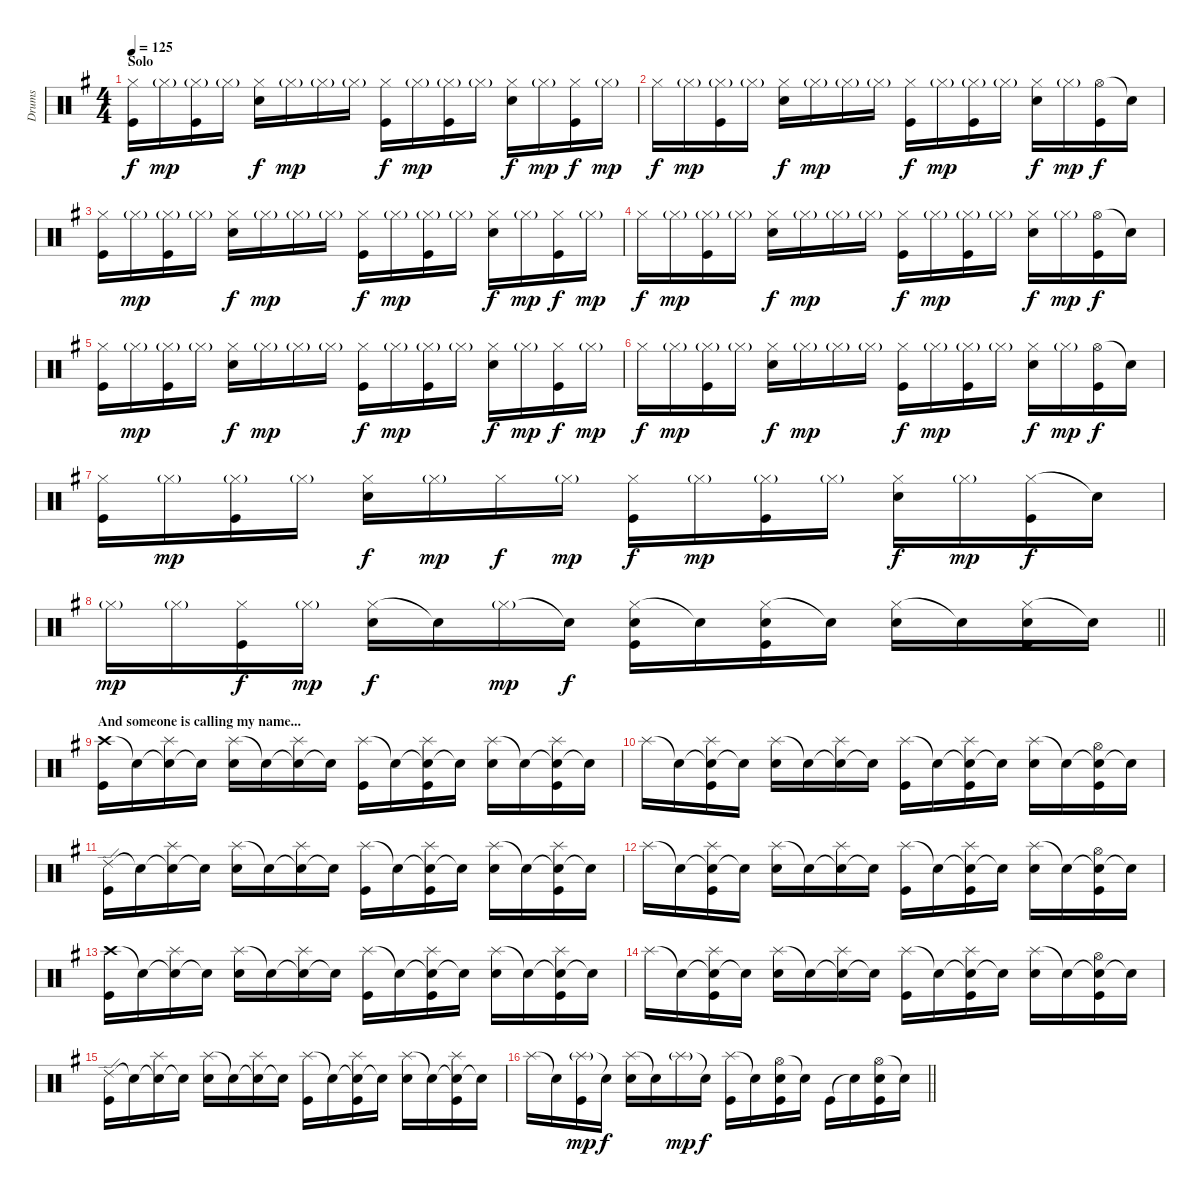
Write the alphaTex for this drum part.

\track ("Drums" "Drums") {instrument percussion}
\staff {score}
\articulation defaults
\ts (4 4)
\section ("" "Solo")
\tempo 125
\clef neutral
\ks g
("Hi-Hat (closed)" "Kick (hit)").16{dy f} "Hi-Hat (closed)"{g}.16{dy mp} ("Hi-Hat (closed)"{g} "Kick (hit)").16 "Hi-Hat (closed)"{g}.16 ("Hi-Hat (closed)" "Electric Snare (hit)").16{dy f} "Hi-Hat (closed)"{g}.16{dy mp} "Hi-Hat (closed)"{g}.16 "Hi-Hat (closed)"{g}.16 ("Hi-Hat (closed)" "Kick (hit)").16{dy f} "Hi-Hat (closed)"{g}.16{dy mp} ("Hi-Hat (closed)"{g} "Kick (hit)").16 "Hi-Hat (closed)"{g}.16 ("Hi-Hat (closed)" "Electric Snare (hit)").16{dy f} "Hi-Hat (closed)"{g}.16{dy mp} ("Hi-Hat (closed)" "Kick (hit)").16{dy f} "Hi-Hat (closed)"{g}.16{dy mp} |
"Hi-Hat (closed)".16{dy f} "Hi-Hat (closed)"{g}.16{dy mp} ("Hi-Hat (closed)"{g} "Kick (hit)").16 "Hi-Hat (closed)"{g}.16 ("Hi-Hat (closed)" "Electric Snare (hit)").16{dy f} "Hi-Hat (closed)"{g}.16{dy mp} "Hi-Hat (closed)"{g}.16 "Hi-Hat (closed)"{g}.16 ("Hi-Hat (closed)" "Kick (hit)").16{dy f} "Hi-Hat (closed)"{g}.16{dy mp} ("Hi-Hat (closed)"{g} "Kick (hit)").16 "Hi-Hat (closed)"{g}.16 ("Hi-Hat (closed)" "Electric Snare (hit)").16{dy f} "Hi-Hat (closed)"{g}.16{dy mp} ("Hi-Hat (open)" "Kick (hit)").16{dy f} "Snare (hit)"{t}.16 |
("Hi-Hat (closed)" "Kick (hit)").16 "Hi-Hat (closed)"{g}.16{dy mp} ("Hi-Hat (closed)"{g} "Kick (hit)").16 "Hi-Hat (closed)"{g}.16 ("Hi-Hat (closed)" "Electric Snare (hit)").16{dy f} "Hi-Hat (closed)"{g}.16{dy mp} "Hi-Hat (closed)"{g}.16 "Hi-Hat (closed)"{g}.16 ("Hi-Hat (closed)" "Kick (hit)").16{dy f} "Hi-Hat (closed)"{g}.16{dy mp} ("Hi-Hat (closed)"{g} "Kick (hit)").16 "Hi-Hat (closed)"{g}.16 ("Hi-Hat (closed)" "Electric Snare (hit)").16{dy f} "Hi-Hat (closed)"{g}.16{dy mp} ("Hi-Hat (closed)" "Kick (hit)").16{dy f} "Hi-Hat (closed)"{g}.16{dy mp} |
"Hi-Hat (closed)".16{dy f} "Hi-Hat (closed)"{g}.16{dy mp} ("Hi-Hat (closed)"{g} "Kick (hit)").16 "Hi-Hat (closed)"{g}.16 ("Hi-Hat (closed)" "Electric Snare (hit)").16{dy f} "Hi-Hat (closed)"{g}.16{dy mp} "Hi-Hat (closed)"{g}.16 "Hi-Hat (closed)"{g}.16 ("Hi-Hat (closed)" "Kick (hit)").16{dy f} "Hi-Hat (closed)"{g}.16{dy mp} ("Hi-Hat (closed)"{g} "Kick (hit)").16 "Hi-Hat (closed)"{g}.16 ("Hi-Hat (closed)" "Electric Snare (hit)").16{dy f} "Hi-Hat (closed)"{g}.16{dy mp} ("Hi-Hat (open)" "Kick (hit)").16{dy f} "Snare (hit)"{t}.16 |
("Hi-Hat (closed)" "Kick (hit)").16 "Hi-Hat (closed)"{g}.16{dy mp} ("Hi-Hat (closed)"{g} "Kick (hit)").16 "Hi-Hat (closed)"{g}.16 ("Hi-Hat (closed)" "Electric Snare (hit)").16{dy f} "Hi-Hat (closed)"{g}.16{dy mp} "Hi-Hat (closed)"{g}.16 "Hi-Hat (closed)"{g}.16 ("Hi-Hat (closed)" "Kick (hit)").16{dy f} "Hi-Hat (closed)"{g}.16{dy mp} ("Hi-Hat (closed)"{g} "Kick (hit)").16 "Hi-Hat (closed)"{g}.16 ("Hi-Hat (closed)" "Electric Snare (hit)").16{dy f} "Hi-Hat (closed)"{g}.16{dy mp} ("Hi-Hat (closed)" "Kick (hit)").16{dy f} "Hi-Hat (closed)"{g}.16{dy mp} |
"Hi-Hat (closed)".16{dy f} "Hi-Hat (closed)"{g}.16{dy mp} ("Hi-Hat (closed)"{g} "Kick (hit)").16 "Hi-Hat (closed)"{g}.16 ("Hi-Hat (closed)" "Electric Snare (hit)").16{dy f} "Hi-Hat (closed)"{g}.16{dy mp} "Hi-Hat (closed)"{g}.16 "Hi-Hat (closed)"{g}.16 ("Hi-Hat (closed)" "Kick (hit)").16{dy f} "Hi-Hat (closed)"{g}.16{dy mp} ("Hi-Hat (closed)"{g} "Kick (hit)").16 "Hi-Hat (closed)"{g}.16 ("Hi-Hat (closed)" "Electric Snare (hit)").16{dy f} "Hi-Hat (closed)"{g}.16{dy mp} ("Hi-Hat (open)" "Kick (hit)").16{dy f} "Snare (hit)"{t}.16 |
("Hi-Hat (closed)" "Kick (hit)").16 "Hi-Hat (closed)"{g}.16{dy mp} ("Hi-Hat (closed)"{g} "Kick (hit)").16 "Hi-Hat (closed)"{g}.16 ("Hi-Hat (closed)" "Electric Snare (hit)").16{dy f} "Hi-Hat (closed)"{g}.16{dy mp} "Hi-Hat (closed)".16{dy f} "Hi-Hat (closed)"{g}.16{dy mp} ("Hi-Hat (closed)" "Kick (hit)").16{dy f} "Hi-Hat (closed)"{g}.16{dy mp} ("Hi-Hat (closed)"{g} "Kick (hit)").16 "Hi-Hat (closed)"{g}.16 ("Hi-Hat (closed)" "Electric Snare (hit)").16{dy f} "Hi-Hat (closed)"{g}.16{dy mp} ("Hi-Hat (closed)" "Kick (hit)").16{dy f} "Snare (hit)"{t}.16 |
\barLineRight lightlight "Hi-Hat (closed)"{g}.16{dy mp} "Hi-Hat (closed)"{g}.16
("Hi-Hat (closed)" "Kick (hit)").16{dy f} "Hi-Hat (closed)"{g}.16{dy mp} ("Hi-Hat (closed)" "Electric Snare (hit)").16{dy f} "Snare (hit)"{t}.16 "Hi-Hat (closed)"{g}.16{dy mp} "Snare (hit)"{t}.16{dy f} ("Hi-Hat (closed)" "Electric Snare (hit)" "Kick (hit)").16 "Snare (hit)"{t}.16 ("Hi-Hat (closed)" "Electric Snare (hit)" "Kick (hit)").16 "Snare (hit)"{t}.16 ("Hi-Hat (closed)" "Electric Snare (hit)").16 "Snare (hit)"{t}.16 ("Hi-Hat (closed)" "Electric Snare (hit)" "Kick (hit)").16 "Snare (hit)"{t}.16 |
\section ("" "And someone is calling my name...")
("Crash high (hit)" "Kick (hit)").16 "Snare (hit)"{t}.16 ("Snare (hit)"{t} "Splash (hit)").16 "Snare (hit)"{t}.16 ("Splash (hit)" "Electric Snare (hit)").16 "Snare (hit)"{t}.16 ("Snare (hit)"{t} "Splash (hit)").16 "Snare (hit)"{t}.16 ("Splash (hit)" "Kick (hit)").16 "Snare (hit)"{t}.16 ("Snare (hit)"{t} "Splash (hit)" "Kick (hit)").16 "Snare (hit)"{t}.16 ("Splash (hit)" "Electric Snare (hit)").16 "Snare (hit)"{t}.16 ("Snare (hit)"{t} "Splash (hit)" "Kick (hit)").16 "Snare (hit)"{t}.16 |
"Splash (hit)".16 "Snare (hit)"{t}.16 ("Snare (hit)"{t} "Splash (hit)" "Kick (hit)").16 "Snare (hit)"{t}.16 ("Splash (hit)" "Electric Snare (hit)").16 "Snare (hit)"{t}.16 ("Snare (hit)"{t} "Splash (hit)").16 "Snare (hit)"{t}.16 ("Splash (hit)" "Kick (hit)").16 "Snare (hit)"{t}.16 ("Snare (hit)"{t} "Splash (hit)" "Kick (hit)").16 "Snare (hit)"{t}.16 ("Splash (hit)" "Electric Snare (hit)").16 "Snare (hit)"{t}.16 ("Snare (hit)"{t} "Hi-Hat (open)" "Kick (hit)").16 "Snare (hit)"{t}.16 |
("Ride (edge) 2" "Kick (hit)").16 "Snare (hit)"{t}.16 ("Snare (hit)"{t} "Splash (hit)").16 "Snare (hit)"{t}.16 ("Splash (hit)" "Electric Snare (hit)").16 "Snare (hit)"{t}.16 ("Snare (hit)"{t} "Splash (hit)").16 "Snare (hit)"{t}.16 ("Splash (hit)" "Kick (hit)").16 "Snare (hit)"{t}.16 ("Snare (hit)"{t} "Splash (hit)" "Kick (hit)").16 "Snare (hit)"{t}.16 ("Splash (hit)" "Electric Snare (hit)").16 "Snare (hit)"{t}.16 ("Snare (hit)"{t} "Splash (hit)" "Kick (hit)").16 "Snare (hit)"{t}.16 |
"Splash (hit)".16 "Snare (hit)"{t}.16 ("Snare (hit)"{t} "Splash (hit)" "Kick (hit)").16 "Snare (hit)"{t}.16 ("Splash (hit)" "Electric Snare (hit)").16 "Snare (hit)"{t}.16 ("Snare (hit)"{t} "Splash (hit)").16 "Snare (hit)"{t}.16 ("Splash (hit)" "Kick (hit)").16 "Snare (hit)"{t}.16 ("Snare (hit)"{t} "Splash (hit)" "Kick (hit)").16 "Snare (hit)"{t}.16 ("Splash (hit)" "Electric Snare (hit)").16 "Snare (hit)"{t}.16 ("Snare (hit)"{t} "Hi-Hat (open)" "Kick (hit)").16 "Snare (hit)"{t}.16 |
("Crash high (hit)" "Kick (hit)").16 "Snare (hit)"{t}.16 ("Snare (hit)"{t} "Splash (hit)").16 "Snare (hit)"{t}.16 ("Splash (hit)" "Electric Snare (hit)").16 "Snare (hit)"{t}.16 ("Snare (hit)"{t} "Splash (hit)").16 "Snare (hit)"{t}.16 ("Splash (hit)" "Kick (hit)").16 "Snare (hit)"{t}.16 ("Snare (hit)"{t} "Splash (hit)" "Kick (hit)").16 "Snare (hit)"{t}.16 ("Splash (hit)" "Electric Snare (hit)").16 "Snare (hit)"{t}.16 ("Snare (hit)"{t} "Splash (hit)" "Kick (hit)").16 "Snare (hit)"{t}.16 |
"Splash (hit)".16 "Snare (hit)"{t}.16 ("Snare (hit)"{t} "Splash (hit)" "Kick (hit)").16 "Snare (hit)"{t}.16 ("Splash (hit)" "Electric Snare (hit)").16 "Snare (hit)"{t}.16 ("Snare (hit)"{t} "Splash (hit)").16 "Snare (hit)"{t}.16 ("Splash (hit)" "Kick (hit)").16 "Snare (hit)"{t}.16 ("Snare (hit)"{t} "Splash (hit)" "Kick (hit)").16 "Snare (hit)"{t}.16 ("Splash (hit)" "Electric Snare (hit)").16 "Snare (hit)"{t}.16 ("Snare (hit)"{t} "Hi-Hat (open)" "Kick (hit)").16 "Snare (hit)"{t}.16 |
("Ride (edge) 2" "Kick (hit)").16 "Snare (hit)"{t}.16 ("Snare (hit)"{t} "Splash (hit)").16 "Snare (hit)"{t}.16 ("Splash (hit)" "Electric Snare (hit)").16 "Snare (hit)"{t}.16 ("Snare (hit)"{t} "Splash (hit)").16 "Snare (hit)"{t}.16 ("Splash (hit)" "Kick (hit)").16 "Snare (hit)"{t}.16 ("Snare (hit)"{t} "Splash (hit)" "Kick (hit)").16 "Snare (hit)"{t}.16 ("Splash (hit)" "Electric Snare (hit)").16 "Snare (hit)"{t}.16 ("Snare (hit)"{t} "Splash (hit)" "Kick (hit)").16 "Snare (hit)"{t}.16 |
\barLineRight lightlight "Splash (hit)".16 "Snare (hit)"{t}.16
("Splash (hit)"{g} "Kick (hit)").16{dy mp} "Snare (hit)"{t}.16{dy f} ("Splash (hit)" "Electric Snare (hit)").16 "Snare (hit)"{t}.16 "Splash (hit)"{g}.16{dy mp} "Snare (hit)"{t}.16{dy f} ("Splash (hit)" "Kick (hit)").16 "Snare (hit)"{t}.16 ("Hi-Hat (open)" "Electric Snare (hit)" "Kick (hit)").16 "Snare (hit)"{t}.16 "Kick (hit)".16 "Snare (hit)"{t}.16 ("Hi-Hat (open)" "Electric Snare (hit)" "Kick (hit)").16 "Snare (hit)"{t}.16
